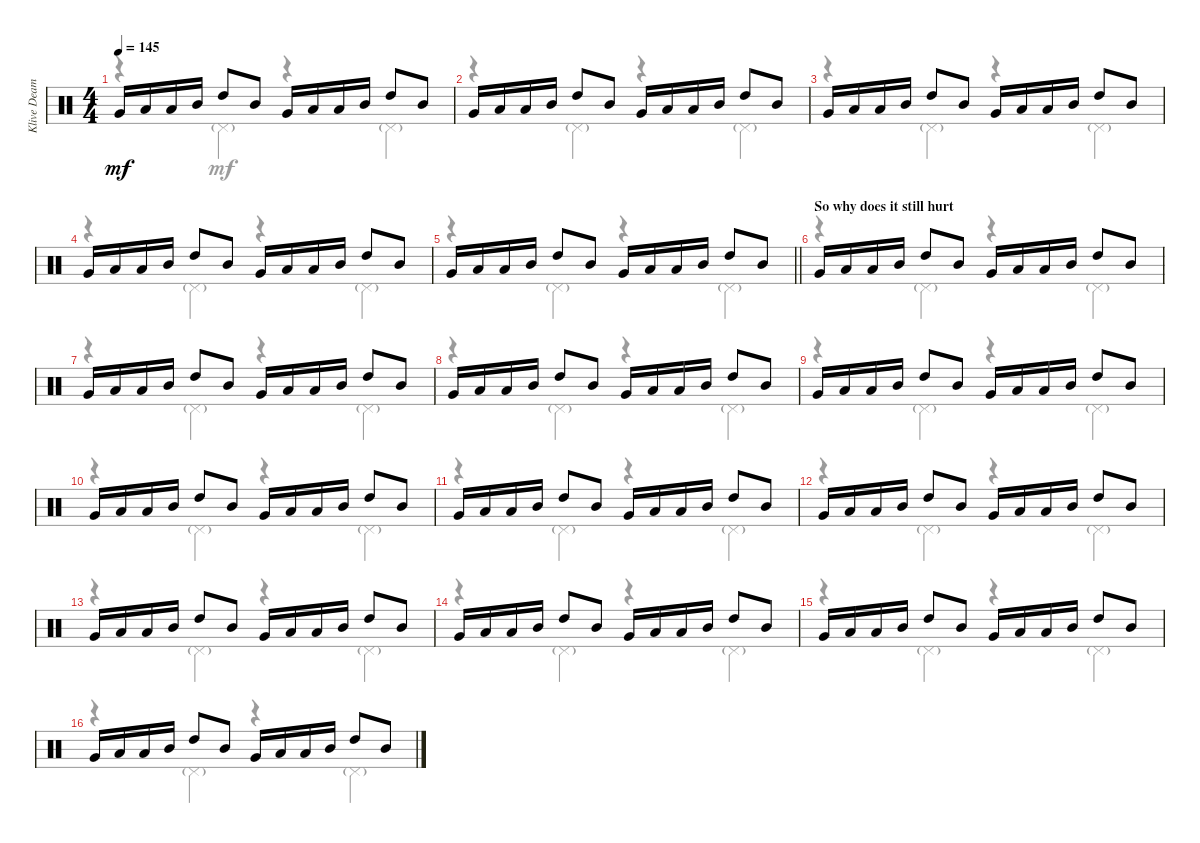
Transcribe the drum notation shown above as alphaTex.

\track ("Klive Deamer" "Klive Deam") {instrument percussion}
\staff {score}
\articulation defaults
\voice
\ts (4 4)
\tempo 145
\clef neutral
\ks c "Very Low Tom (hit)".16{dy mf} "Low Tom (hit)".16 "Low Tom (hit)".16 "Mid Tom (hit)".16 "High Tom (hit)".8 "Mid Tom (hit)".8 "Very Low Tom (hit)".16 "Low Tom (hit)".16 "Low Tom (hit)".16 "Mid Tom (hit)".16 "High Tom (hit)".8 "Mid Tom (hit)".8
|
"Very Low Tom (hit)".16 "Low Tom (hit)".16 "Low Tom (hit)".16 "Mid Tom (hit)".16 "High Tom (hit)".8 "Mid Tom (hit)".8 "Very Low Tom (hit)".16 "Low Tom (hit)".16 "Low Tom (hit)".16 "Mid Tom (hit)".16 "High Tom (hit)".8 "Mid Tom (hit)".8 |
"Very Low Tom (hit)".16 "Low Tom (hit)".16 "Low Tom (hit)".16 "Mid Tom (hit)".16 "High Tom (hit)".8 "Mid Tom (hit)".8 "Very Low Tom (hit)".16 "Low Tom (hit)".16 "Low Tom (hit)".16 "Mid Tom (hit)".16 "High Tom (hit)".8 "Mid Tom (hit)".8 |
"Very Low Tom (hit)".16 "Low Tom (hit)".16 "Low Tom (hit)".16 "Mid Tom (hit)".16 "High Tom (hit)".8 "Mid Tom (hit)".8 "Very Low Tom (hit)".16 "Low Tom (hit)".16 "Low Tom (hit)".16 "Mid Tom (hit)".16 "High Tom (hit)".8 "Mid Tom (hit)".8 |
\barLineRight lightlight "Very Low Tom (hit)".16 "Low Tom (hit)".16 "Low Tom (hit)".16 "Mid Tom (hit)".16 "High Tom (hit)".8 "Mid Tom (hit)".8 "Very Low Tom (hit)".16 "Low Tom (hit)".16 "Low Tom (hit)".16 "Mid Tom (hit)".16 "High Tom (hit)".8 "Mid Tom (hit)".8
|
\section ("" "So why does it still hurt")
"Very Low Tom (hit)".16 "Low Tom (hit)".16 "Low Tom (hit)".16 "Mid Tom (hit)".16 "High Tom (hit)".8 "Mid Tom (hit)".8 "Very Low Tom (hit)".16 "Low Tom (hit)".16 "Low Tom (hit)".16 "Mid Tom (hit)".16 "High Tom (hit)".8 "Mid Tom (hit)".8 |
"Very Low Tom (hit)".16 "Low Tom (hit)".16 "Low Tom (hit)".16 "Mid Tom (hit)".16 "High Tom (hit)".8 "Mid Tom (hit)".8 "Very Low Tom (hit)".16 "Low Tom (hit)".16 "Low Tom (hit)".16 "Mid Tom (hit)".16 "High Tom (hit)".8 "Mid Tom (hit)".8 |
"Very Low Tom (hit)".16 "Low Tom (hit)".16 "Low Tom (hit)".16 "Mid Tom (hit)".16 "High Tom (hit)".8 "Mid Tom (hit)".8 "Very Low Tom (hit)".16 "Low Tom (hit)".16 "Low Tom (hit)".16 "Mid Tom (hit)".16 "High Tom (hit)".8 "Mid Tom (hit)".8 |
"Very Low Tom (hit)".16 "Low Tom (hit)".16 "Low Tom (hit)".16 "Mid Tom (hit)".16 "High Tom (hit)".8 "Mid Tom (hit)".8 "Very Low Tom (hit)".16 "Low Tom (hit)".16 "Low Tom (hit)".16 "Mid Tom (hit)".16 "High Tom (hit)".8 "Mid Tom (hit)".8 |
"Very Low Tom (hit)".16 "Low Tom (hit)".16 "Low Tom (hit)".16 "Mid Tom (hit)".16 "High Tom (hit)".8 "Mid Tom (hit)".8 "Very Low Tom (hit)".16 "Low Tom (hit)".16 "Low Tom (hit)".16 "Mid Tom (hit)".16 "High Tom (hit)".8 "Mid Tom (hit)".8 |
"Very Low Tom (hit)".16 "Low Tom (hit)".16 "Low Tom (hit)".16 "Mid Tom (hit)".16 "High Tom (hit)".8 "Mid Tom (hit)".8 "Very Low Tom (hit)".16 "Low Tom (hit)".16 "Low Tom (hit)".16 "Mid Tom (hit)".16 "High Tom (hit)".8 "Mid Tom (hit)".8 |
"Very Low Tom (hit)".16 "Low Tom (hit)".16 "Low Tom (hit)".16 "Mid Tom (hit)".16 "High Tom (hit)".8 "Mid Tom (hit)".8 "Very Low Tom (hit)".16 "Low Tom (hit)".16 "Low Tom (hit)".16 "Mid Tom (hit)".16 "High Tom (hit)".8 "Mid Tom (hit)".8 |
"Very Low Tom (hit)".16 "Low Tom (hit)".16 "Low Tom (hit)".16 "Mid Tom (hit)".16 "High Tom (hit)".8 "Mid Tom (hit)".8 "Very Low Tom (hit)".16 "Low Tom (hit)".16 "Low Tom (hit)".16 "Mid Tom (hit)".16 "High Tom (hit)".8 "Mid Tom (hit)".8 |
"Very Low Tom (hit)".16 "Low Tom (hit)".16 "Low Tom (hit)".16 "Mid Tom (hit)".16 "High Tom (hit)".8 "Mid Tom (hit)".8 "Very Low Tom (hit)".16 "Low Tom (hit)".16 "Low Tom (hit)".16 "Mid Tom (hit)".16 "High Tom (hit)".8 "Mid Tom (hit)".8 |
"Very Low Tom (hit)".16 "Low Tom (hit)".16 "Low Tom (hit)".16 "Mid Tom (hit)".16 "High Tom (hit)".8 "Mid Tom (hit)".8 "Very Low Tom (hit)".16 "Low Tom (hit)".16 "Low Tom (hit)".16 "Mid Tom (hit)".16 "High Tom (hit)".8 "Mid Tom (hit)".8 |
"Very Low Tom (hit)".16 "Low Tom (hit)".16 "Low Tom (hit)".16 "Mid Tom (hit)".16 "High Tom (hit)".8 "Mid Tom (hit)".8 "Very Low Tom (hit)".16 "Low Tom (hit)".16 "Low Tom (hit)".16 "Mid Tom (hit)".16 "High Tom (hit)".8 "Mid Tom (hit)".8
\voice
\clef neutral
\ottava regular
\simile none
\ks c
r.4{dy mf} "Pedal Hi-Hat (hit)"{g}.4 r.4 "Pedal Hi-Hat (hit)"{g}.4 |
r.4 "Pedal Hi-Hat (hit)"{g}.4 r.4 "Pedal Hi-Hat (hit)"{g}.4 |
r.4 "Pedal Hi-Hat (hit)"{g}.4 r.4 "Pedal Hi-Hat (hit)"{g}.4 |
r.4 "Pedal Hi-Hat (hit)"{g}.4 r.4 "Pedal Hi-Hat (hit)"{g}.4 |
\barLineRight lightlight
r.4 "Pedal Hi-Hat (hit)"{g}.4 r.4 "Pedal Hi-Hat (hit)"{g}.4 |
r.4 "Pedal Hi-Hat (hit)"{g}.4 r.4 "Pedal Hi-Hat (hit)"{g}.4 |
r.4 "Pedal Hi-Hat (hit)"{g}.4 r.4 "Pedal Hi-Hat (hit)"{g}.4 |
r.4 "Pedal Hi-Hat (hit)"{g}.4 r.4 "Pedal Hi-Hat (hit)"{g}.4 |
r.4 "Pedal Hi-Hat (hit)"{g}.4 r.4 "Pedal Hi-Hat (hit)"{g}.4 |
r.4 "Pedal Hi-Hat (hit)"{g}.4 r.4 "Pedal Hi-Hat (hit)"{g}.4 |
r.4 "Pedal Hi-Hat (hit)"{g}.4 r.4 "Pedal Hi-Hat (hit)"{g}.4 |
r.4 "Pedal Hi-Hat (hit)"{g}.4 r.4 "Pedal Hi-Hat (hit)"{g}.4 |
r.4 "Pedal Hi-Hat (hit)"{g}.4 r.4 "Pedal Hi-Hat (hit)"{g}.4 |
r.4 "Pedal Hi-Hat (hit)"{g}.4 r.4 "Pedal Hi-Hat (hit)"{g}.4 |
r.4 "Pedal Hi-Hat (hit)"{g}.4 r.4 "Pedal Hi-Hat (hit)"{g}.4 |
r.4 "Pedal Hi-Hat (hit)"{g}.4 r.4 "Pedal Hi-Hat (hit)"{g}.4
